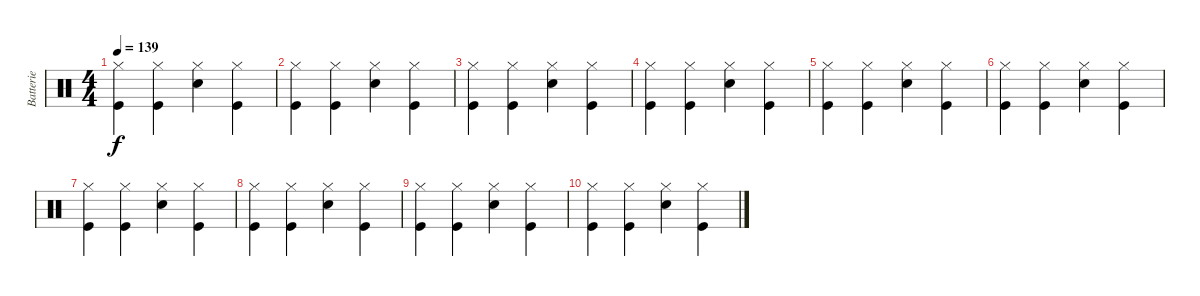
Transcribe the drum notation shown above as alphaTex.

\track ("Batterie" "Batterie") {instrument percussion}
\staff {score}
\articulation defaults
\ts (4 4)
\tempo 139
\clef neutral
\ks c
("Hi-Hat (closed)" "Kick (hit)").4{dy f} ("Hi-Hat (closed)" "Kick (hit)").4 ("Hi-Hat (closed)" "Snare (hit) 2").4 ("Hi-Hat (closed)" "Kick (hit)").4 |
("Hi-Hat (closed)" "Kick (hit)").4 ("Hi-Hat (closed)" "Kick (hit)").4 ("Hi-Hat (closed)" "Snare (hit) 2").4 ("Hi-Hat (closed)" "Kick (hit)").4 |
("Hi-Hat (closed)" "Kick (hit)").4 ("Hi-Hat (closed)" "Kick (hit)").4 ("Hi-Hat (closed)" "Snare (hit) 2").4 ("Hi-Hat (closed)" "Kick (hit)").4 |
("Hi-Hat (closed)" "Kick (hit)").4 ("Hi-Hat (closed)" "Kick (hit)").4 ("Hi-Hat (closed)" "Snare (hit) 2").4 ("Hi-Hat (closed)" "Kick (hit)").4 |
("Hi-Hat (closed)" "Kick (hit)").4 ("Hi-Hat (closed)" "Kick (hit)").4 ("Hi-Hat (closed)" "Snare (hit) 2").4 ("Hi-Hat (closed)" "Kick (hit)").4 |
("Hi-Hat (closed)" "Kick (hit)").4 ("Hi-Hat (closed)" "Kick (hit)").4 ("Hi-Hat (closed)" "Snare (hit) 2").4 ("Hi-Hat (closed)" "Kick (hit)").4 |
("Hi-Hat (closed)" "Kick (hit)").4 ("Hi-Hat (closed)" "Kick (hit)").4 ("Hi-Hat (closed)" "Snare (hit) 2").4 ("Hi-Hat (closed)" "Kick (hit)").4 |
("Hi-Hat (closed)" "Kick (hit)").4 ("Hi-Hat (closed)" "Kick (hit)").4 ("Hi-Hat (closed)" "Snare (hit) 2").4 ("Hi-Hat (closed)" "Kick (hit)").4 |
("Hi-Hat (closed)" "Kick (hit)").4 ("Hi-Hat (closed)" "Kick (hit)").4 ("Hi-Hat (closed)" "Snare (hit) 2").4 ("Hi-Hat (closed)" "Kick (hit)").4 |
("Hi-Hat (closed)" "Kick (hit)").4 ("Hi-Hat (closed)" "Kick (hit)").4 ("Hi-Hat (closed)" "Snare (hit) 2").4 ("Hi-Hat (closed)" "Kick (hit)").4
